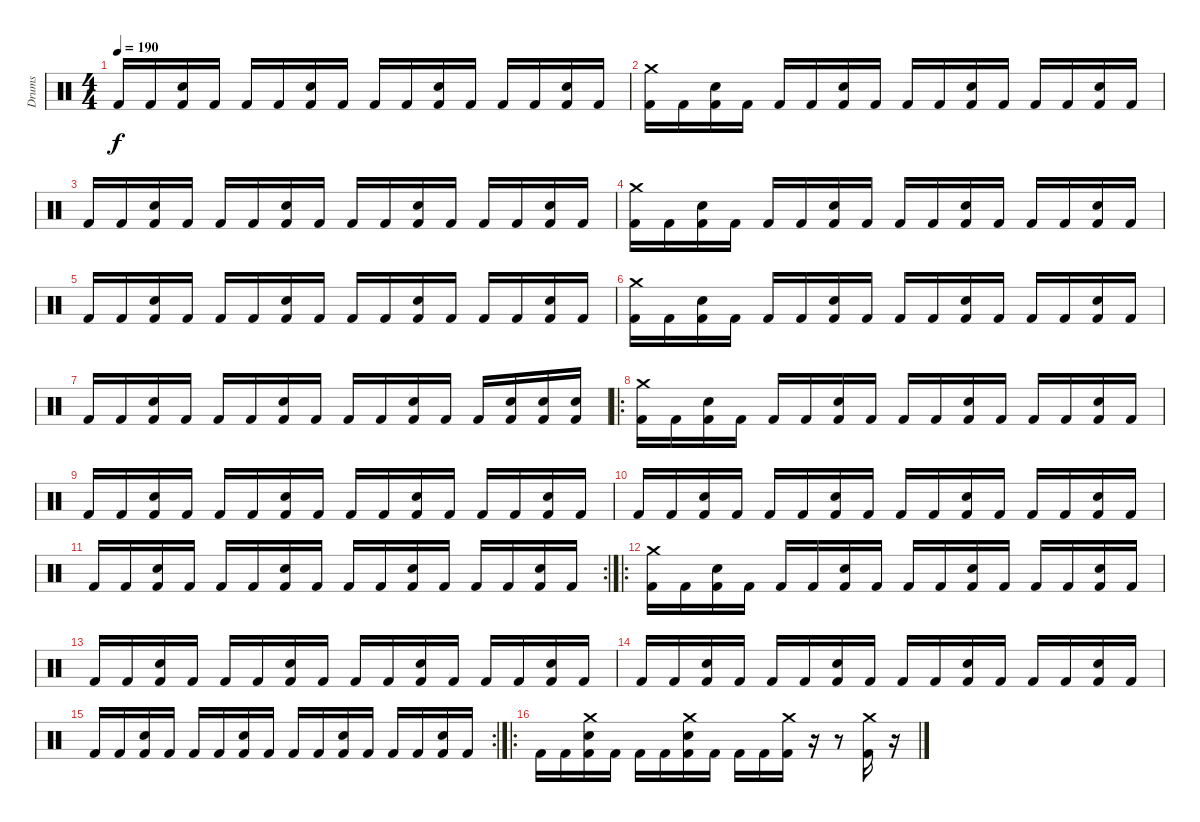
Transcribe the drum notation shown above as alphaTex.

\track ("Drums" "Drums") {instrument percussion}
\staff {score}
\articulation defaults
\ts (4 4)
\tempo 190
\clef neutral
\ks c "Kick (hit) 2".16{dy f} "Kick (hit) 2".16
("Electric Snare (hit)" "Kick (hit) 2").16 "Kick (hit) 2".16 "Kick (hit) 2".16 "Kick (hit) 2".16 ("Electric Snare (hit)" "Kick (hit) 2").16 "Kick (hit) 2".16 "Kick (hit) 2".16 "Kick (hit) 2".16 ("Electric Snare (hit)" "Kick (hit) 2").16 "Kick (hit) 2".16 "Kick (hit) 2".16 "Kick (hit) 2".16 ("Electric Snare (hit)" "Kick (hit) 2").16 "Kick (hit) 2".16 |
("Crash medium (hit)" "Kick (hit) 2").16 "Kick (hit) 2".16 ("Electric Snare (hit)" "Kick (hit) 2").16 "Kick (hit) 2".16 "Kick (hit) 2".16 "Kick (hit) 2".16 ("Electric Snare (hit)" "Kick (hit) 2").16 "Kick (hit) 2".16 "Kick (hit) 2".16 "Kick (hit) 2".16 ("Electric Snare (hit)" "Kick (hit) 2").16 "Kick (hit) 2".16 "Kick (hit) 2".16 "Kick (hit) 2".16 ("Electric Snare (hit)" "Kick (hit) 2").16 "Kick (hit) 2".16 |
"Kick (hit) 2".16 "Kick (hit) 2".16 ("Electric Snare (hit)" "Kick (hit) 2").16 "Kick (hit) 2".16 "Kick (hit) 2".16 "Kick (hit) 2".16 ("Electric Snare (hit)" "Kick (hit) 2").16 "Kick (hit) 2".16 "Kick (hit) 2".16 "Kick (hit) 2".16 ("Electric Snare (hit)" "Kick (hit) 2").16 "Kick (hit) 2".16 "Kick (hit) 2".16 "Kick (hit) 2".16 ("Electric Snare (hit)" "Kick (hit) 2").16 "Kick (hit) 2".16 |
("Crash medium (hit)" "Kick (hit) 2").16 "Kick (hit) 2".16 ("Electric Snare (hit)" "Kick (hit) 2").16 "Kick (hit) 2".16 "Kick (hit) 2".16 "Kick (hit) 2".16 ("Electric Snare (hit)" "Kick (hit) 2").16 "Kick (hit) 2".16 "Kick (hit) 2".16 "Kick (hit) 2".16 ("Electric Snare (hit)" "Kick (hit) 2").16 "Kick (hit) 2".16 "Kick (hit) 2".16 "Kick (hit) 2".16 ("Electric Snare (hit)" "Kick (hit) 2").16 "Kick (hit) 2".16 |
"Kick (hit) 2".16 "Kick (hit) 2".16 ("Electric Snare (hit)" "Kick (hit) 2").16 "Kick (hit) 2".16 "Kick (hit) 2".16 "Kick (hit) 2".16 ("Electric Snare (hit)" "Kick (hit) 2").16 "Kick (hit) 2".16 "Kick (hit) 2".16 "Kick (hit) 2".16 ("Electric Snare (hit)" "Kick (hit) 2").16 "Kick (hit) 2".16 "Kick (hit) 2".16 "Kick (hit) 2".16 ("Electric Snare (hit)" "Kick (hit) 2").16 "Kick (hit) 2".16 |
("Crash medium (hit)" "Kick (hit) 2").16 "Kick (hit) 2".16 ("Electric Snare (hit)" "Kick (hit) 2").16 "Kick (hit) 2".16 "Kick (hit) 2".16 "Kick (hit) 2".16 ("Electric Snare (hit)" "Kick (hit) 2").16 "Kick (hit) 2".16 "Kick (hit) 2".16 "Kick (hit) 2".16 ("Electric Snare (hit)" "Kick (hit) 2").16 "Kick (hit) 2".16 "Kick (hit) 2".16 "Kick (hit) 2".16 ("Electric Snare (hit)" "Kick (hit) 2").16 "Kick (hit) 2".16 |
"Kick (hit) 2".16 "Kick (hit) 2".16 ("Electric Snare (hit)" "Kick (hit) 2").16 "Kick (hit) 2".16 "Kick (hit) 2".16 "Kick (hit) 2".16 ("Electric Snare (hit)" "Kick (hit) 2").16 "Kick (hit) 2".16 "Kick (hit) 2".16 "Kick (hit) 2".16 ("Electric Snare (hit)" "Kick (hit) 2").16 "Kick (hit) 2".16 "Kick (hit) 2".16 ("Electric Snare (hit)" "Kick (hit) 2").16 ("Electric Snare (hit)" "Kick (hit) 2").16 ("Electric Snare (hit)" "Kick (hit) 2").16 |
\ro
("Crash medium (hit)" "Kick (hit) 2").16 "Kick (hit) 2".16 ("Electric Snare (hit)" "Kick (hit) 2").16 "Kick (hit) 2".16 "Kick (hit) 2".16 "Kick (hit) 2".16 ("Electric Snare (hit)" "Kick (hit) 2").16 "Kick (hit) 2".16 "Kick (hit) 2".16 "Kick (hit) 2".16 ("Electric Snare (hit)" "Kick (hit) 2").16 "Kick (hit) 2".16 "Kick (hit) 2".16 "Kick (hit) 2".16 ("Electric Snare (hit)" "Kick (hit) 2").16 "Kick (hit) 2".16 |
"Kick (hit) 2".16 "Kick (hit) 2".16 ("Electric Snare (hit)" "Kick (hit) 2").16 "Kick (hit) 2".16 "Kick (hit) 2".16 "Kick (hit) 2".16 ("Electric Snare (hit)" "Kick (hit) 2").16 "Kick (hit) 2".16 "Kick (hit) 2".16 "Kick (hit) 2".16 ("Electric Snare (hit)" "Kick (hit) 2").16 "Kick (hit) 2".16 "Kick (hit) 2".16 "Kick (hit) 2".16 ("Electric Snare (hit)" "Kick (hit) 2").16 "Kick (hit) 2".16 |
"Kick (hit) 2".16 "Kick (hit) 2".16 ("Electric Snare (hit)" "Kick (hit) 2").16 "Kick (hit) 2".16 "Kick (hit) 2".16 "Kick (hit) 2".16 ("Electric Snare (hit)" "Kick (hit) 2").16 "Kick (hit) 2".16 "Kick (hit) 2".16 "Kick (hit) 2".16 ("Electric Snare (hit)" "Kick (hit) 2").16 "Kick (hit) 2".16 "Kick (hit) 2".16 "Kick (hit) 2".16 ("Electric Snare (hit)" "Kick (hit) 2").16 "Kick (hit) 2".16 |
\rc 2 "Kick (hit) 2".16 "Kick (hit) 2".16
("Electric Snare (hit)" "Kick (hit) 2").16 "Kick (hit) 2".16 "Kick (hit) 2".16 "Kick (hit) 2".16 ("Electric Snare (hit)" "Kick (hit) 2").16 "Kick (hit) 2".16 "Kick (hit) 2".16 "Kick (hit) 2".16 ("Electric Snare (hit)" "Kick (hit) 2").16 "Kick (hit) 2".16 "Kick (hit) 2".16 "Kick (hit) 2".16 ("Electric Snare (hit)" "Kick (hit) 2").16 "Kick (hit) 2".16 |
\ro
("Crash medium (hit)" "Kick (hit) 2").16 "Kick (hit) 2".16 ("Electric Snare (hit)" "Kick (hit) 2").16 "Kick (hit) 2".16 "Kick (hit) 2".16 "Kick (hit) 2".16 ("Electric Snare (hit)" "Kick (hit) 2").16 "Kick (hit) 2".16 "Kick (hit) 2".16 "Kick (hit) 2".16 ("Electric Snare (hit)" "Kick (hit) 2").16 "Kick (hit) 2".16 "Kick (hit) 2".16 "Kick (hit) 2".16 ("Electric Snare (hit)" "Kick (hit) 2").16 "Kick (hit) 2".16 |
"Kick (hit) 2".16 "Kick (hit) 2".16 ("Electric Snare (hit)" "Kick (hit) 2").16 "Kick (hit) 2".16 "Kick (hit) 2".16 "Kick (hit) 2".16 ("Electric Snare (hit)" "Kick (hit) 2").16 "Kick (hit) 2".16 "Kick (hit) 2".16 "Kick (hit) 2".16 ("Electric Snare (hit)" "Kick (hit) 2").16 "Kick (hit) 2".16 "Kick (hit) 2".16 "Kick (hit) 2".16 ("Electric Snare (hit)" "Kick (hit) 2").16 "Kick (hit) 2".16 |
"Kick (hit) 2".16 "Kick (hit) 2".16 ("Electric Snare (hit)" "Kick (hit) 2").16 "Kick (hit) 2".16 "Kick (hit) 2".16 "Kick (hit) 2".16 ("Electric Snare (hit)" "Kick (hit) 2").16 "Kick (hit) 2".16 "Kick (hit) 2".16 "Kick (hit) 2".16 ("Electric Snare (hit)" "Kick (hit) 2").16 "Kick (hit) 2".16 "Kick (hit) 2".16 "Kick (hit) 2".16 ("Electric Snare (hit)" "Kick (hit) 2").16 "Kick (hit) 2".16 |
\rc 2 "Kick (hit) 2".16 "Kick (hit) 2".16
("Electric Snare (hit)" "Kick (hit) 2").16 "Kick (hit) 2".16 "Kick (hit) 2".16 "Kick (hit) 2".16 ("Electric Snare (hit)" "Kick (hit) 2").16 "Kick (hit) 2".16 "Kick (hit) 2".16 "Kick (hit) 2".16 ("Electric Snare (hit)" "Kick (hit) 2").16 "Kick (hit) 2".16 "Kick (hit) 2".16 "Kick (hit) 2".16 ("Electric Snare (hit)" "Kick (hit) 2").16 "Kick (hit) 2".16 |
\ro "Kick (hit) 2".16 "Kick (hit) 2".16
("Crash medium (hit)" "Electric Snare (hit)" "Kick (hit) 2").16 "Kick (hit) 2".16 "Kick (hit) 2".16 "Kick (hit) 2".16 ("Crash medium (hit)" "Electric Snare (hit)" "Kick (hit) 2").16 "Kick (hit) 2".16 "Kick (hit) 2".16 "Kick (hit) 2".16 ("Crash medium (hit)" "Kick (hit) 2").16 r.16 r.8 ("Crash medium (hit)" "Kick (hit) 2").16 r.16
